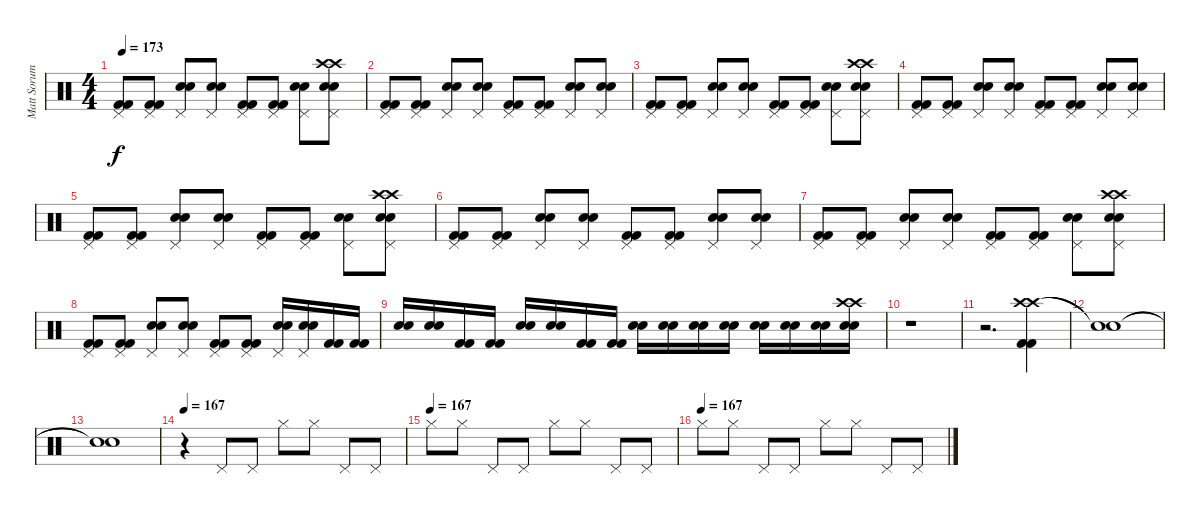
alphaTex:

\track ("Matt Sorum" "Matt Sorum") {instrument percussion}
\staff {score}
\articulation defaults
\ts (4 4)
\tempo 173
\clef neutral
\ks c
("Pedal Hi-Hat (hit)" "Kick (hit) 2" "Kick (hit) 2").8{dy f} ("Pedal Hi-Hat (hit)" "Kick (hit) 2" "Kick (hit) 2").8 ("Pedal Hi-Hat (hit)" "Snare (hit) 2" "Snare (hit) 2").8 ("Pedal Hi-Hat (hit)" "Snare (hit) 2" "Snare (hit) 2").8 ("Pedal Hi-Hat (hit)" "Kick (hit) 2" "Kick (hit) 2").8 ("Pedal Hi-Hat (hit)" "Kick (hit) 2" "Kick (hit) 2").8 ("Pedal Hi-Hat (hit)" "Snare (hit) 2" "Snare (hit) 2").8 ("Crash high (hit)" "Crash high (hit)" "Pedal Hi-Hat (hit)" "Snare (hit) 2" "Snare (hit) 2").8 |
("Pedal Hi-Hat (hit)" "Kick (hit) 2" "Kick (hit) 2").8 ("Pedal Hi-Hat (hit)" "Kick (hit) 2" "Kick (hit) 2").8 ("Pedal Hi-Hat (hit)" "Snare (hit) 2" "Snare (hit) 2").8 ("Pedal Hi-Hat (hit)" "Snare (hit) 2" "Snare (hit) 2").8 ("Pedal Hi-Hat (hit)" "Kick (hit) 2" "Kick (hit) 2").8 ("Pedal Hi-Hat (hit)" "Kick (hit) 2" "Kick (hit) 2").8 ("Pedal Hi-Hat (hit)" "Snare (hit) 2" "Snare (hit) 2").8 ("Pedal Hi-Hat (hit)" "Snare (hit) 2" "Snare (hit) 2").8 |
("Pedal Hi-Hat (hit)" "Kick (hit) 2" "Kick (hit) 2").8 ("Pedal Hi-Hat (hit)" "Kick (hit) 2" "Kick (hit) 2").8 ("Pedal Hi-Hat (hit)" "Snare (hit) 2" "Snare (hit) 2").8 ("Pedal Hi-Hat (hit)" "Snare (hit) 2" "Snare (hit) 2").8 ("Pedal Hi-Hat (hit)" "Kick (hit) 2" "Kick (hit) 2").8 ("Pedal Hi-Hat (hit)" "Kick (hit) 2" "Kick (hit) 2").8 ("Pedal Hi-Hat (hit)" "Snare (hit) 2" "Snare (hit) 2").8 ("Crash high (hit)" "Crash high (hit)" "Pedal Hi-Hat (hit)" "Snare (hit) 2" "Snare (hit) 2").8 |
("Pedal Hi-Hat (hit)" "Kick (hit) 2" "Kick (hit) 2").8 ("Pedal Hi-Hat (hit)" "Kick (hit) 2" "Kick (hit) 2").8 ("Pedal Hi-Hat (hit)" "Snare (hit) 2" "Snare (hit) 2").8 ("Pedal Hi-Hat (hit)" "Snare (hit) 2" "Snare (hit) 2").8 ("Pedal Hi-Hat (hit)" "Kick (hit) 2" "Kick (hit) 2").8 ("Pedal Hi-Hat (hit)" "Kick (hit) 2" "Kick (hit) 2").8 ("Pedal Hi-Hat (hit)" "Snare (hit) 2" "Snare (hit) 2").8 ("Pedal Hi-Hat (hit)" "Snare (hit) 2" "Snare (hit) 2").8 |
("Pedal Hi-Hat (hit)" "Kick (hit) 2" "Kick (hit) 2").8 ("Pedal Hi-Hat (hit)" "Kick (hit) 2" "Kick (hit) 2").8 ("Pedal Hi-Hat (hit)" "Snare (hit) 2" "Snare (hit) 2").8 ("Pedal Hi-Hat (hit)" "Snare (hit) 2" "Snare (hit) 2").8 ("Pedal Hi-Hat (hit)" "Kick (hit) 2" "Kick (hit) 2").8 ("Pedal Hi-Hat (hit)" "Kick (hit) 2" "Kick (hit) 2").8 ("Pedal Hi-Hat (hit)" "Snare (hit) 2" "Snare (hit) 2").8 ("Crash high (hit)" "Crash high (hit)" "Pedal Hi-Hat (hit)" "Snare (hit) 2" "Snare (hit) 2").8 |
("Pedal Hi-Hat (hit)" "Kick (hit) 2" "Kick (hit) 2").8 ("Pedal Hi-Hat (hit)" "Kick (hit) 2" "Kick (hit) 2").8 ("Pedal Hi-Hat (hit)" "Snare (hit) 2" "Snare (hit) 2").8 ("Pedal Hi-Hat (hit)" "Snare (hit) 2" "Snare (hit) 2").8 ("Pedal Hi-Hat (hit)" "Kick (hit) 2" "Kick (hit) 2").8 ("Pedal Hi-Hat (hit)" "Kick (hit) 2" "Kick (hit) 2").8 ("Pedal Hi-Hat (hit)" "Snare (hit) 2" "Snare (hit) 2").8 ("Pedal Hi-Hat (hit)" "Snare (hit) 2" "Snare (hit) 2").8 |
("Pedal Hi-Hat (hit)" "Kick (hit) 2" "Kick (hit) 2").8 ("Pedal Hi-Hat (hit)" "Kick (hit) 2" "Kick (hit) 2").8 ("Pedal Hi-Hat (hit)" "Snare (hit) 2" "Snare (hit) 2").8 ("Pedal Hi-Hat (hit)" "Snare (hit) 2" "Snare (hit) 2").8 ("Pedal Hi-Hat (hit)" "Kick (hit) 2" "Kick (hit) 2").8 ("Pedal Hi-Hat (hit)" "Kick (hit) 2" "Kick (hit) 2").8 ("Pedal Hi-Hat (hit)" "Snare (hit) 2" "Snare (hit) 2").8 ("Crash high (hit)" "Crash high (hit)" "Pedal Hi-Hat (hit)" "Snare (hit) 2" "Snare (hit) 2").8 |
("Pedal Hi-Hat (hit)" "Kick (hit) 2" "Kick (hit) 2").8 ("Pedal Hi-Hat (hit)" "Kick (hit) 2" "Kick (hit) 2").8 ("Pedal Hi-Hat (hit)" "Snare (hit) 2" "Snare (hit) 2").8 ("Pedal Hi-Hat (hit)" "Snare (hit) 2" "Snare (hit) 2").8 ("Pedal Hi-Hat (hit)" "Kick (hit) 2" "Kick (hit) 2").8 ("Pedal Hi-Hat (hit)" "Kick (hit) 2" "Kick (hit) 2").8 ("Pedal Hi-Hat (hit)" "Snare (hit) 2" "Snare (hit) 2").16 ("Pedal Hi-Hat (hit)" "Snare (hit) 2" "Snare (hit) 2").16 ("Kick (hit) 2" "Kick (hit) 2").16 ("Kick (hit) 2" "Kick (hit) 2").16 |
("Snare (hit) 2" "Snare (hit) 2").16 ("Snare (hit) 2" "Snare (hit) 2").16 ("Kick (hit) 2" "Kick (hit) 2").16 ("Kick (hit) 2" "Kick (hit) 2").16 ("Snare (hit) 2" "Snare (hit) 2").16 ("Snare (hit) 2" "Snare (hit) 2").16 ("Kick (hit) 2" "Kick (hit) 2").16 ("Kick (hit) 2" "Kick (hit) 2").16 ("Snare (hit) 2" "Snare (hit) 2").16 ("Snare (hit) 2" "Snare (hit) 2").16 ("Snare (hit) 2" "Snare (hit) 2").16 ("Snare (hit) 2" "Snare (hit) 2").16 ("Snare (hit) 2" "Snare (hit) 2").16 ("Snare (hit) 2" "Snare (hit) 2").16 ("Snare (hit) 2" "Snare (hit) 2").16 ("Crash high (hit)" "Crash high (hit)" "Snare (hit) 2" "Snare (hit) 2").16 |
r.1 |
r.2{d} ("Crash high (hit)" "Crash high (hit)" "Kick (hit) 2" "Kick (hit) 2").4 |
("Snare (hit)"{t} "Snare (hit)"{t}).1 |
("Snare (hit)"{t} "Snare (hit)"{t}).1 |
\tempo 167
r.4 "Pedal Hi-Hat (hit)".8 "Pedal Hi-Hat (hit)".8 "Hi-Hat (closed)".8 "Hi-Hat (closed)".8 "Pedal Hi-Hat (hit)".8 "Pedal Hi-Hat (hit)".8 |
\tempo (167)
"Hi-Hat (closed)".8 "Hi-Hat (closed)".8 "Pedal Hi-Hat (hit)".8 "Pedal Hi-Hat (hit)".8 "Hi-Hat (closed)".8 "Hi-Hat (closed)".8 "Pedal Hi-Hat (hit)".8 "Pedal Hi-Hat (hit)".8 |
\tempo (167)
"Hi-Hat (closed)".8 "Hi-Hat (closed)".8 "Pedal Hi-Hat (hit)".8 "Pedal Hi-Hat (hit)".8 "Hi-Hat (closed)".8 "Hi-Hat (closed)".8 "Pedal Hi-Hat (hit)".8 "Pedal Hi-Hat (hit)".8
